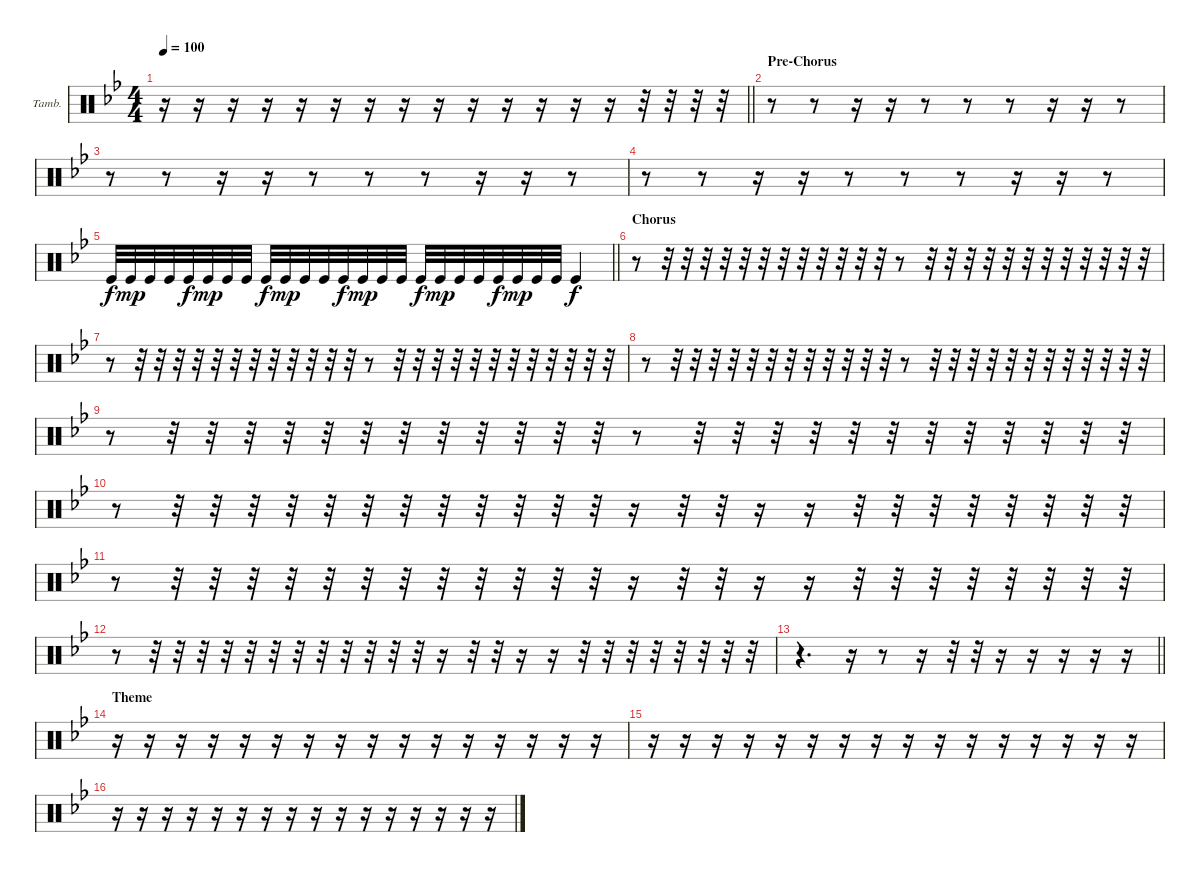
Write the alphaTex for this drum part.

\bracketExtendMode groupsimilarinstruments
\firstSystemTrackNameOrientation horizontal
\otherSystemsTrackNameOrientation horizontal
\track ("Tambourine" "Tamb.") {instrument percussion}
\staff {score}
\articulation defaults
\ts (4 4)
\tempo 100
\clef neutral
\barLineRight lightlight
\ks gminor
r.16{dy f} r.16 r.16 r.16 r.16 r.16 r.16 r.16 r.16 r.16 r.16 r.16 r.16 r.16 r.32 r.32 r.32 r.32 |
\section ("" "Pre-Chorus")
r.8 r.8 r.16 r.16 r.8 r.8 r.8 r.16 r.16 r.8 |
r.8 r.8 r.16 r.16 r.8 r.8 r.8 r.16 r.16 r.8 |
r.8 r.8 r.16 r.16 r.8 r.8 r.8 r.16 r.16 r.8 |
\barLineRight lightlight "Kick (hit)".32 "Kick (hit)".32{dy mp} "Kick (hit)".32 "Kick (hit)".32 "Kick (hit)".32{dy f} "Kick (hit)".32{dy mp} "Kick (hit)".32 "Kick (hit)".32 "Kick (hit)".32{dy f} "Kick (hit)".32{dy mp} "Kick (hit)".32 "Kick (hit)".32 "Kick (hit)".32{dy f} "Kick (hit)".32{dy mp} "Kick (hit)".32 "Kick (hit)".32 "Kick (hit)".32{dy f} "Kick (hit)".32{dy mp} "Kick (hit)".32 "Kick (hit)".32 "Kick (hit)".32{dy f} "Kick (hit)".32{dy mp} "Kick (hit)".32 "Kick (hit)".32 "Kick (hit)".4{dy f}
|
\section ("" "Chorus")
r.8 r.32 r.32 r.32 r.32 r.32 r.32 r.32 r.32 r.32 r.32 r.32 r.32 r.8 r.32 r.32 r.32 r.32 r.32 r.32 r.32 r.32 r.32 r.32 r.32 r.32 |
r.8 r.32 r.32 r.32 r.32 r.32 r.32 r.32 r.32 r.32 r.32 r.32 r.32 r.8 r.32 r.32 r.32 r.32 r.32 r.32 r.32 r.32 r.32 r.32 r.32 r.32 |
r.8 r.32 r.32 r.32 r.32 r.32 r.32 r.32 r.32 r.32 r.32 r.32 r.32 r.8 r.32 r.32 r.32 r.32 r.32 r.32 r.32 r.32 r.32 r.32 r.32 r.32 |
r.8 r.32 r.32 r.32 r.32 r.32 r.32 r.32 r.32 r.32 r.32 r.32 r.32 r.8 r.32 r.32 r.32 r.32 r.32 r.32 r.32 r.32 r.32 r.32 r.32 r.32 |
r.8 r.32 r.32 r.32 r.32 r.32 r.32 r.32 r.32 r.32 r.32 r.32 r.32 r.16 r.32 r.32 r.16 r.16 r.32 r.32 r.32 r.32 r.32 r.32 r.32 r.32 |
r.8 r.32 r.32 r.32 r.32 r.32 r.32 r.32 r.32 r.32 r.32 r.32 r.32 r.16 r.32 r.32 r.16 r.16 r.32 r.32 r.32 r.32 r.32 r.32 r.32 r.32 |
r.8 r.32 r.32 r.32 r.32 r.32 r.32 r.32 r.32 r.32 r.32 r.32 r.32 r.16 r.32 r.32 r.16 r.16 r.32 r.32 r.32 r.32 r.32 r.32 r.32 r.32 |
\barLineRight lightlight
r.4{d} r.16 r.8 r.16 r.32 r.32 r.16 r.16 r.16 r.16 r.16 |
\section ("" "Theme")
r.16 r.16 r.16 r.16 r.16 r.16 r.16 r.16 r.16 r.16 r.16 r.16 r.16 r.16 r.16 r.16 |
r.16 r.16 r.16 r.16 r.16 r.16 r.16 r.16 r.16 r.16 r.16 r.16 r.16 r.16 r.16 r.16 |
r.16 r.16 r.16 r.16 r.16 r.16 r.16 r.16 r.16 r.16 r.16 r.16 r.16 r.16 r.16 r.16
